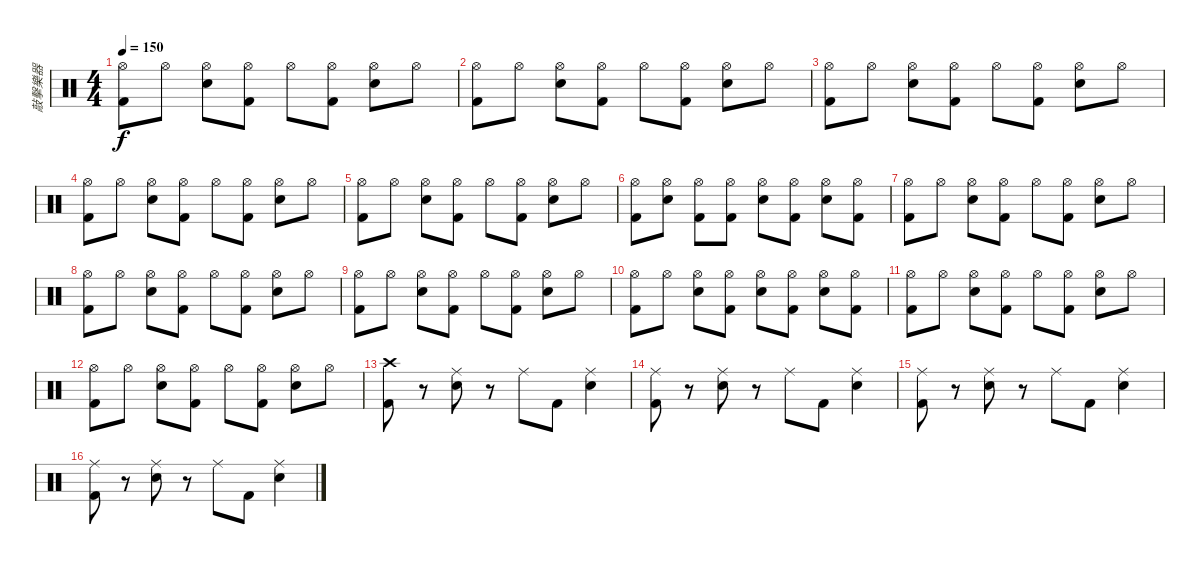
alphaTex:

\track ("敲擊樂器" "敲擊樂器") {instrument percussion}
\staff {score}
\articulation defaults
\ts (4 4)
\tempo 150
\clef neutral
\ks c
("Hi-Hat (open)" "Kick (hit) 2").8{dy f} "Hi-Hat (open)".8 ("Hi-Hat (open)" "Electric Snare (hit)").8 ("Hi-Hat (open)" "Kick (hit) 2").8 "Hi-Hat (open)".8 ("Hi-Hat (open)" "Kick (hit) 2").8 ("Hi-Hat (open)" "Electric Snare (hit)").8 "Hi-Hat (open)".8 |
("Hi-Hat (open)" "Kick (hit) 2").8 "Hi-Hat (open)".8 ("Hi-Hat (open)" "Electric Snare (hit)").8 ("Hi-Hat (open)" "Kick (hit) 2").8 "Hi-Hat (open)".8 ("Hi-Hat (open)" "Kick (hit) 2").8 ("Hi-Hat (open)" "Electric Snare (hit)").8 "Hi-Hat (open)".8 |
("Hi-Hat (open)" "Kick (hit) 2").8 "Hi-Hat (open)".8 ("Hi-Hat (open)" "Electric Snare (hit)").8 ("Hi-Hat (open)" "Kick (hit) 2").8 "Hi-Hat (open)".8 ("Hi-Hat (open)" "Kick (hit) 2").8 ("Hi-Hat (open)" "Electric Snare (hit)").8 "Hi-Hat (open)".8 |
("Hi-Hat (open)" "Kick (hit) 2").8 "Hi-Hat (open)".8 ("Hi-Hat (open)" "Electric Snare (hit)").8 ("Hi-Hat (open)" "Kick (hit) 2").8 "Hi-Hat (open)".8 ("Hi-Hat (open)" "Kick (hit) 2").8 ("Hi-Hat (open)" "Electric Snare (hit)").8 "Hi-Hat (open)".8 |
("Hi-Hat (open)" "Kick (hit) 2").8 "Hi-Hat (open)".8 ("Hi-Hat (open)" "Electric Snare (hit)").8 ("Hi-Hat (open)" "Kick (hit) 2").8 "Hi-Hat (open)".8 ("Hi-Hat (open)" "Kick (hit) 2").8 ("Hi-Hat (open)" "Electric Snare (hit)").8 "Hi-Hat (open)".8 |
("Hi-Hat (open)" "Kick (hit) 2").8 ("Hi-Hat (open)" "Electric Snare (hit)").8 ("Hi-Hat (open)" "Kick (hit) 2").8 ("Hi-Hat (open)" "Kick (hit) 2").8 ("Hi-Hat (open)" "Electric Snare (hit)").8 ("Hi-Hat (open)" "Kick (hit) 2").8 ("Hi-Hat (open)" "Electric Snare (hit)").8 ("Hi-Hat (open)" "Kick (hit) 2").8 |
("Hi-Hat (open)" "Kick (hit) 2").8 "Hi-Hat (open)".8 ("Hi-Hat (open)" "Electric Snare (hit)").8 ("Hi-Hat (open)" "Kick (hit) 2").8 "Hi-Hat (open)".8 ("Hi-Hat (open)" "Kick (hit) 2").8 ("Hi-Hat (open)" "Electric Snare (hit)").8 "Hi-Hat (open)".8 |
("Hi-Hat (open)" "Kick (hit) 2").8 "Hi-Hat (open)".8 ("Hi-Hat (open)" "Electric Snare (hit)").8 ("Hi-Hat (open)" "Kick (hit) 2").8 "Hi-Hat (open)".8 ("Hi-Hat (open)" "Kick (hit) 2").8 ("Hi-Hat (open)" "Electric Snare (hit)").8 "Hi-Hat (open)".8 |
("Hi-Hat (open)" "Kick (hit) 2").8 "Hi-Hat (open)".8 ("Hi-Hat (open)" "Electric Snare (hit)").8 ("Hi-Hat (open)" "Kick (hit) 2").8 "Hi-Hat (open)".8 ("Hi-Hat (open)" "Kick (hit) 2").8 ("Hi-Hat (open)" "Electric Snare (hit)").8 "Hi-Hat (open)".8 |
("Hi-Hat (open)" "Kick (hit) 2").8 "Hi-Hat (open)".8 ("Hi-Hat (open)" "Electric Snare (hit)").8 ("Hi-Hat (open)" "Kick (hit) 2").8 ("Hi-Hat (open)" "Electric Snare (hit)").8 ("Hi-Hat (open)" "Kick (hit) 2").8 ("Hi-Hat (open)" "Electric Snare (hit)").8 ("Hi-Hat (open)" "Kick (hit) 2").8 |
("Hi-Hat (open)" "Kick (hit) 2").8 "Hi-Hat (open)".8 ("Hi-Hat (open)" "Electric Snare (hit)").8 ("Hi-Hat (open)" "Kick (hit) 2").8 "Hi-Hat (open)".8 ("Hi-Hat (open)" "Kick (hit) 2").8 ("Hi-Hat (open)" "Electric Snare (hit)").8 "Hi-Hat (open)".8 |
("Hi-Hat (open)" "Kick (hit) 2").8 "Hi-Hat (open)".8 ("Hi-Hat (open)" "Electric Snare (hit)").8 ("Hi-Hat (open)" "Kick (hit) 2").8 "Hi-Hat (open)".8 ("Hi-Hat (open)" "Kick (hit) 2").8 ("Hi-Hat (open)" "Electric Snare (hit)").8 "Hi-Hat (open)".8 |
("Crash high (hit)" "Kick (hit) 2").8 r.8 ("Ride (middle)" "Electric Snare (hit)").8 r.8 "Ride (middle)".8 "Kick (hit) 2".8 ("Ride (middle)" "Electric Snare (hit)").4 |
("Ride (middle)" "Kick (hit) 2").8 r.8 ("Ride (middle)" "Electric Snare (hit)").8 r.8 "Ride (middle)".8 "Kick (hit) 2".8 ("Ride (middle)" "Electric Snare (hit)").4 |
("Ride (middle)" "Kick (hit) 2").8 r.8 ("Ride (middle)" "Electric Snare (hit)").8 r.8 "Ride (middle)".8 "Kick (hit) 2".8 ("Ride (middle)" "Electric Snare (hit)").4 |
("Ride (middle)" "Kick (hit) 2").8 r.8 ("Ride (middle)" "Electric Snare (hit)").8 r.8 "Ride (middle)".8 "Kick (hit) 2".8 ("Ride (middle)" "Electric Snare (hit)").4
